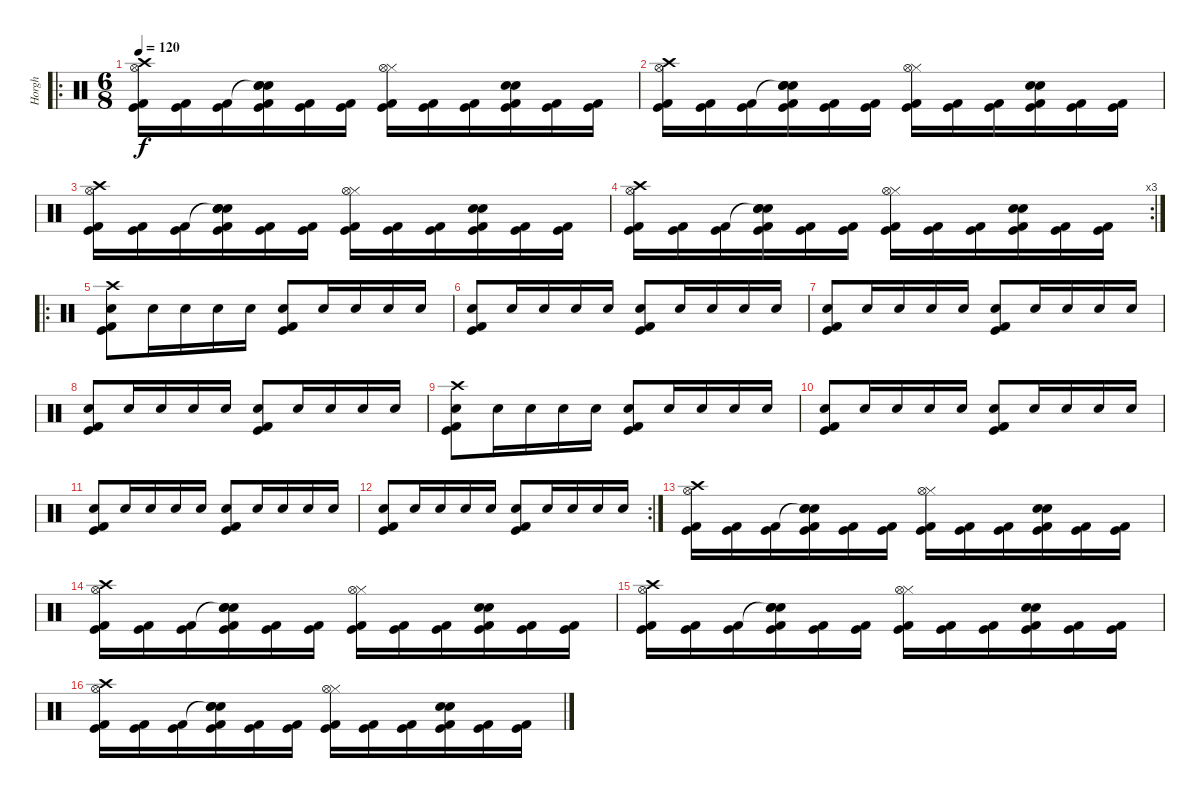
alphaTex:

\track ("Horgh" "Horgh") {instrument percussion}
\staff {score}
\articulation defaults
\ro
\ts (6 8)
\tempo 120
\clef neutral
\ks c
("Crash high (hit)" "Hi-Hat (open)" "Kick (hit) 2" "Kick (hit)").16{dy f} ("Kick (hit) 2" "Kick (hit)").16 ("Kick (hit) 2" "Kick (hit)").16 ("Snare (hit)"{t} "Snare (hit) 2" "Electric Snare (hit)" "Kick (hit) 2" "Kick (hit)").16 ("Kick (hit) 2" "Kick (hit)").16 ("Kick (hit) 2" "Kick (hit)").16 ("Hi-Hat (closed)" "Hi-Hat (open)" "Kick (hit) 2" "Kick (hit)").16 ("Kick (hit) 2" "Kick (hit)").16 ("Kick (hit) 2" "Kick (hit)").16 ("Snare (hit) 2" "Electric Snare (hit)" "Kick (hit) 2" "Kick (hit)").16 ("Kick (hit) 2" "Kick (hit)").16 ("Kick (hit) 2" "Kick (hit)").16 |
("Crash high (hit)" "Hi-Hat (open)" "Kick (hit) 2" "Kick (hit)").16 ("Kick (hit) 2" "Kick (hit)").16 ("Kick (hit) 2" "Kick (hit)").16 ("Snare (hit)"{t} "Snare (hit) 2" "Electric Snare (hit)" "Kick (hit) 2" "Kick (hit)").16 ("Kick (hit) 2" "Kick (hit)").16 ("Kick (hit) 2" "Kick (hit)").16 ("Hi-Hat (closed)" "Hi-Hat (open)" "Kick (hit) 2" "Kick (hit)").16 ("Kick (hit) 2" "Kick (hit)").16 ("Kick (hit) 2" "Kick (hit)").16 ("Snare (hit) 2" "Electric Snare (hit)" "Kick (hit) 2" "Kick (hit)").16 ("Kick (hit) 2" "Kick (hit)").16 ("Kick (hit) 2" "Kick (hit)").16 |
("Crash high (hit)" "Hi-Hat (open)" "Kick (hit) 2" "Kick (hit)").16 ("Kick (hit) 2" "Kick (hit)").16 ("Kick (hit) 2" "Kick (hit)").16 ("Snare (hit)"{t} "Snare (hit) 2" "Electric Snare (hit)" "Kick (hit) 2" "Kick (hit)").16 ("Kick (hit) 2" "Kick (hit)").16 ("Kick (hit) 2" "Kick (hit)").16 ("Hi-Hat (closed)" "Hi-Hat (open)" "Kick (hit) 2" "Kick (hit)").16 ("Kick (hit) 2" "Kick (hit)").16 ("Kick (hit) 2" "Kick (hit)").16 ("Snare (hit) 2" "Electric Snare (hit)" "Kick (hit) 2" "Kick (hit)").16 ("Kick (hit) 2" "Kick (hit)").16 ("Kick (hit) 2" "Kick (hit)").16 |
\rc 3
("Crash high (hit)" "Hi-Hat (open)" "Kick (hit) 2" "Kick (hit)").16 ("Kick (hit) 2" "Kick (hit)").16 ("Kick (hit) 2" "Kick (hit)").16 ("Snare (hit)"{t} "Snare (hit) 2" "Electric Snare (hit)" "Kick (hit) 2" "Kick (hit)").16 ("Kick (hit) 2" "Kick (hit)").16 ("Kick (hit) 2" "Kick (hit)").16 ("Hi-Hat (closed)" "Hi-Hat (open)" "Kick (hit) 2" "Kick (hit)").16 ("Kick (hit) 2" "Kick (hit)").16 ("Kick (hit) 2" "Kick (hit)").16 ("Snare (hit) 2" "Electric Snare (hit)" "Kick (hit) 2" "Kick (hit)").16 ("Kick (hit) 2" "Kick (hit)").16 ("Kick (hit) 2" "Kick (hit)").16 |
\ro
("Crash high (hit)" "Electric Snare (hit)" "Kick (hit) 2" "Kick (hit)").8 "Electric Snare (hit)".16 "Electric Snare (hit)".16 "Electric Snare (hit)".16 "Electric Snare (hit)".16 ("Electric Snare (hit)" "Kick (hit) 2" "Kick (hit)").8 "Electric Snare (hit)".16 "Electric Snare (hit)".16 "Electric Snare (hit)".16 "Electric Snare (hit)".16 |
("Electric Snare (hit)" "Kick (hit) 2" "Kick (hit)").8 "Electric Snare (hit)".16 "Electric Snare (hit)".16 "Electric Snare (hit)".16 "Electric Snare (hit)".16 ("Electric Snare (hit)" "Kick (hit) 2" "Kick (hit)").8 "Electric Snare (hit)".16 "Electric Snare (hit)".16 "Electric Snare (hit)".16 "Electric Snare (hit)".16 |
("Electric Snare (hit)" "Kick (hit) 2" "Kick (hit)").8 "Electric Snare (hit)".16 "Electric Snare (hit)".16 "Electric Snare (hit)".16 "Electric Snare (hit)".16 ("Electric Snare (hit)" "Kick (hit) 2" "Kick (hit)").8 "Electric Snare (hit)".16 "Electric Snare (hit)".16 "Electric Snare (hit)".16 "Electric Snare (hit)".16 |
("Electric Snare (hit)" "Kick (hit) 2" "Kick (hit)").8 "Electric Snare (hit)".16 "Electric Snare (hit)".16 "Electric Snare (hit)".16 "Electric Snare (hit)".16 ("Electric Snare (hit)" "Kick (hit) 2" "Kick (hit)").8 "Electric Snare (hit)".16 "Electric Snare (hit)".16 "Electric Snare (hit)".16 "Electric Snare (hit)".16 |
("Crash high (hit)" "Electric Snare (hit)" "Kick (hit) 2" "Kick (hit)").8 "Electric Snare (hit)".16 "Electric Snare (hit)".16 "Electric Snare (hit)".16 "Electric Snare (hit)".16 ("Electric Snare (hit)" "Kick (hit) 2" "Kick (hit)").8 "Electric Snare (hit)".16 "Electric Snare (hit)".16 "Electric Snare (hit)".16 "Electric Snare (hit)".16 |
("Electric Snare (hit)" "Kick (hit) 2" "Kick (hit)").8 "Electric Snare (hit)".16 "Electric Snare (hit)".16 "Electric Snare (hit)".16 "Electric Snare (hit)".16 ("Electric Snare (hit)" "Kick (hit) 2" "Kick (hit)").8 "Electric Snare (hit)".16 "Electric Snare (hit)".16 "Electric Snare (hit)".16 "Electric Snare (hit)".16 |
("Electric Snare (hit)" "Kick (hit) 2" "Kick (hit)").8 "Electric Snare (hit)".16 "Electric Snare (hit)".16 "Electric Snare (hit)".16 "Electric Snare (hit)".16 ("Electric Snare (hit)" "Kick (hit) 2" "Kick (hit)").8 "Electric Snare (hit)".16 "Electric Snare (hit)".16 "Electric Snare (hit)".16 "Electric Snare (hit)".16 |
\rc 2
("Electric Snare (hit)" "Kick (hit) 2" "Kick (hit)").8 "Electric Snare (hit)".16 "Electric Snare (hit)".16 "Electric Snare (hit)".16 "Electric Snare (hit)".16 ("Electric Snare (hit)" "Kick (hit) 2" "Kick (hit)").8 "Electric Snare (hit)".16 "Electric Snare (hit)".16 "Electric Snare (hit)".16 "Electric Snare (hit)".16 |
("Crash high (hit)" "Hi-Hat (open)" "Kick (hit) 2" "Kick (hit)").16 ("Kick (hit) 2" "Kick (hit)").16 ("Kick (hit) 2" "Kick (hit)").16 ("Snare (hit)"{t} "Snare (hit) 2" "Electric Snare (hit)" "Kick (hit) 2" "Kick (hit)").16 ("Kick (hit) 2" "Kick (hit)").16 ("Kick (hit) 2" "Kick (hit)").16 ("Hi-Hat (closed)" "Hi-Hat (open)" "Kick (hit) 2" "Kick (hit)").16 ("Kick (hit) 2" "Kick (hit)").16 ("Kick (hit) 2" "Kick (hit)").16 ("Snare (hit) 2" "Electric Snare (hit)" "Kick (hit) 2" "Kick (hit)").16 ("Kick (hit) 2" "Kick (hit)").16 ("Kick (hit) 2" "Kick (hit)").16 |
("Crash high (hit)" "Hi-Hat (open)" "Kick (hit) 2" "Kick (hit)").16 ("Kick (hit) 2" "Kick (hit)").16 ("Kick (hit) 2" "Kick (hit)").16 ("Snare (hit)"{t} "Snare (hit) 2" "Electric Snare (hit)" "Kick (hit) 2" "Kick (hit)").16 ("Kick (hit) 2" "Kick (hit)").16 ("Kick (hit) 2" "Kick (hit)").16 ("Hi-Hat (closed)" "Hi-Hat (open)" "Kick (hit) 2" "Kick (hit)").16 ("Kick (hit) 2" "Kick (hit)").16 ("Kick (hit) 2" "Kick (hit)").16 ("Snare (hit) 2" "Electric Snare (hit)" "Kick (hit) 2" "Kick (hit)").16 ("Kick (hit) 2" "Kick (hit)").16 ("Kick (hit) 2" "Kick (hit)").16 |
("Crash high (hit)" "Hi-Hat (open)" "Kick (hit) 2" "Kick (hit)").16 ("Kick (hit) 2" "Kick (hit)").16 ("Kick (hit) 2" "Kick (hit)").16 ("Snare (hit)"{t} "Snare (hit) 2" "Electric Snare (hit)" "Kick (hit) 2" "Kick (hit)").16 ("Kick (hit) 2" "Kick (hit)").16 ("Kick (hit) 2" "Kick (hit)").16 ("Hi-Hat (closed)" "Hi-Hat (open)" "Kick (hit) 2" "Kick (hit)").16 ("Kick (hit) 2" "Kick (hit)").16 ("Kick (hit) 2" "Kick (hit)").16 ("Snare (hit) 2" "Electric Snare (hit)" "Kick (hit) 2" "Kick (hit)").16 ("Kick (hit) 2" "Kick (hit)").16 ("Kick (hit) 2" "Kick (hit)").16 |
("Crash high (hit)" "Hi-Hat (open)" "Kick (hit) 2" "Kick (hit)").16 ("Kick (hit) 2" "Kick (hit)").16 ("Kick (hit) 2" "Kick (hit)").16 ("Snare (hit)"{t} "Snare (hit) 2" "Electric Snare (hit)" "Kick (hit) 2" "Kick (hit)").16 ("Kick (hit) 2" "Kick (hit)").16 ("Kick (hit) 2" "Kick (hit)").16 ("Hi-Hat (closed)" "Hi-Hat (open)" "Kick (hit) 2" "Kick (hit)").16 ("Kick (hit) 2" "Kick (hit)").16 ("Kick (hit) 2" "Kick (hit)").16 ("Snare (hit) 2" "Electric Snare (hit)" "Kick (hit) 2" "Kick (hit)").16 ("Kick (hit) 2" "Kick (hit)").16 ("Kick (hit) 2" "Kick (hit)").16
